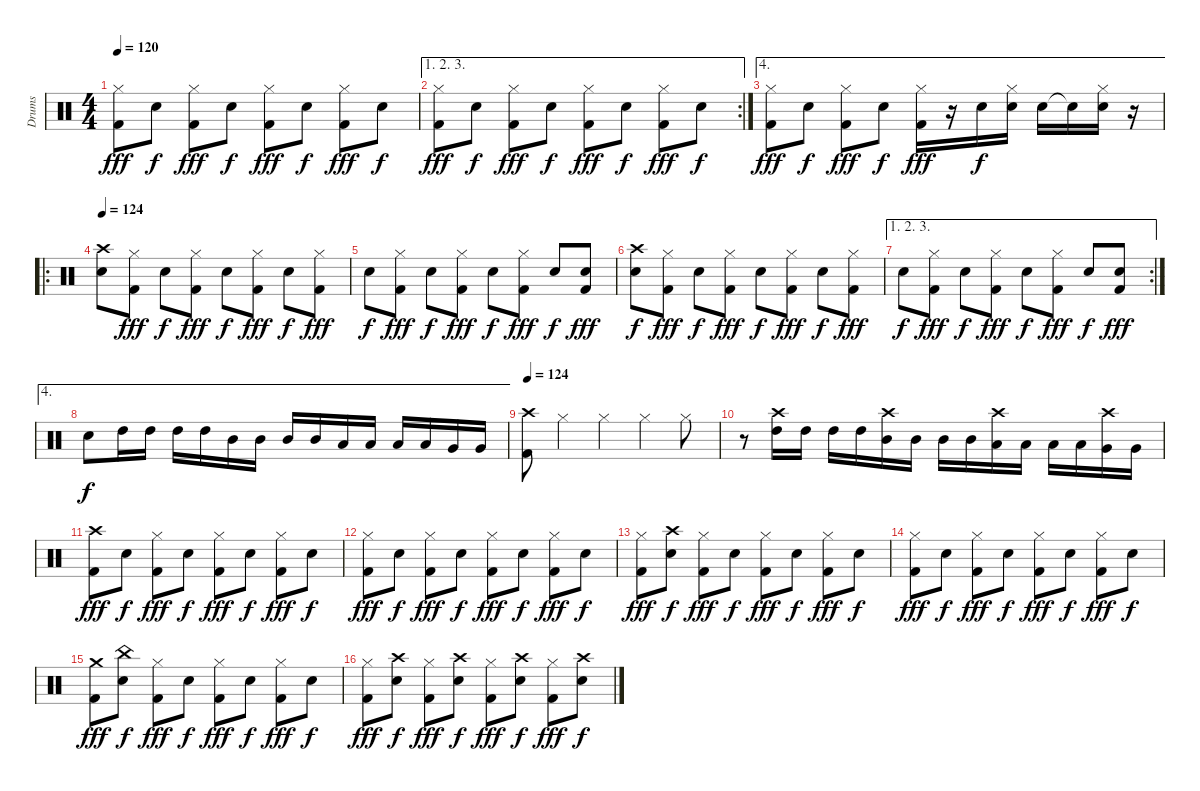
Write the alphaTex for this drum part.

\track ("Drums" "Drums") {instrument percussion}
\staff {score}
\articulation defaults
\ts (4 4)
\tempo 120
\clef neutral
\ks c
("Hi-Hat (closed)" "Kick (hit) 2").8{dy fff} "Snare (hit) 2".8{dy f} ("Hi-Hat (closed)" "Kick (hit) 2").8{dy fff} "Snare (hit) 2".8{dy f} ("Hi-Hat (closed)" "Kick (hit) 2").8{dy fff} "Snare (hit) 2".8{dy f} ("Hi-Hat (closed)" "Kick (hit) 2").8{dy fff} "Snare (hit) 2".8{dy f} |
\ae (1 2 3)
\rc 2
("Hi-Hat (closed)" "Kick (hit) 2").8{dy fff} "Snare (hit) 2".8{dy f} ("Hi-Hat (closed)" "Kick (hit) 2").8{dy fff} "Snare (hit) 2".8{dy f} ("Hi-Hat (closed)" "Kick (hit) 2").8{dy fff} "Snare (hit) 2".8{dy f} ("Hi-Hat (closed)" "Kick (hit) 2").8{dy fff} "Snare (hit) 2".8{dy f} |
\ae 4
("Hi-Hat (closed)" "Kick (hit) 2").8{dy fff} "Snare (hit) 2".8{dy f} ("Hi-Hat (closed)" "Kick (hit) 2").8{dy fff} "Snare (hit) 2".8{dy f} ("Hi-Hat (closed)" "Kick (hit) 2").16{dy fff} r.16 "Snare (hit) 2".16{dy f} ("Hi-Hat (closed)" "Snare (hit) 2").16 "Snare (hit) 2".16 "Snare (hit) 2"{t}.16 ("Hi-Hat (closed)" "Snare (hit) 2").16 r.16 |
\ro
\tempo 124
("Crash high (hit)" "Snare (hit) 2").8 ("Hi-Hat (closed)" "Kick (hit) 2").8{dy fff} "Snare (hit) 2".8{dy f} ("Hi-Hat (closed)" "Kick (hit) 2").8{dy fff} "Snare (hit) 2".8{dy f} ("Hi-Hat (closed)" "Kick (hit) 2").8{dy fff} "Snare (hit) 2".8{dy f} ("Hi-Hat (closed)" "Kick (hit) 2").8{dy fff} |
"Snare (hit) 2".8{dy f} ("Hi-Hat (closed)" "Kick (hit) 2").8{dy fff} "Snare (hit) 2".8{dy f} ("Hi-Hat (closed)" "Kick (hit) 2").8{dy fff} "Snare (hit) 2".8{dy f} ("Hi-Hat (closed)" "Kick (hit) 2").8{dy fff} "Snare (hit) 2".8{dy f} ("Snare (hit) 2" "Kick (hit) 2").8{dy fff} |
("Crash high (hit)" "Snare (hit) 2").8{dy f} ("Hi-Hat (closed)" "Kick (hit) 2").8{dy fff} "Snare (hit) 2".8{dy f} ("Hi-Hat (closed)" "Kick (hit) 2").8{dy fff} "Snare (hit) 2".8{dy f} ("Hi-Hat (closed)" "Kick (hit) 2").8{dy fff} "Snare (hit) 2".8{dy f} ("Hi-Hat (closed)" "Kick (hit) 2").8{dy fff} |
\ae (1 2 3)
\rc 2 "Snare (hit) 2".8{dy f}
("Hi-Hat (closed)" "Kick (hit) 2").8{dy fff} "Snare (hit) 2".8{dy f} ("Hi-Hat (closed)" "Kick (hit) 2").8{dy fff} "Snare (hit) 2".8{dy f} ("Hi-Hat (closed)" "Kick (hit) 2").8{dy fff} "Snare (hit) 2".8{dy f} ("Snare (hit) 2" "Kick (hit) 2").8{dy fff} |
\ae 4 "Snare (hit) 2".8{dy f} "High Tom (hit)".16 "High Tom (hit)".16 "High Tom (hit)".16 "High Tom (hit)".16 "Mid Tom (hit)".16 "Mid Tom (hit)".16 "Mid Tom (hit)".16 "Mid Tom (hit)".16 "Low Tom (hit)".16 "Low Tom (hit)".16 "Low Tom (hit)".16 "Low Tom (hit)".16 "Very Low Tom (hit)".16 "Very Low Tom (hit)".16
|
\tempo 124
("Crash high (hit)" "Kick (hit) 2").8 "Hi-Hat (closed)".4 "Hi-Hat (closed)".4 "Hi-Hat (closed)".4 "Hi-Hat (closed)".8 |
r.8 ("Crash high (hit)" "High Tom (hit)").16 "High Tom (hit)".16 "High Tom (hit)".16 "High Tom (hit)".16 ("Crash high (hit)" "Mid Tom (hit)").16 "Mid Tom (hit)".16 "Mid Tom (hit)".16 "Mid Tom (hit)".16 ("Crash high (hit)" "Low Tom (hit)").16 "Low Tom (hit)".16 "Low Tom (hit)".16 "Low Tom (hit)".16 ("Crash high (hit)" "Very Low Tom (hit)").16 "Very Low Tom (hit)".16 |
("Crash high (hit)" "Kick (hit) 2").8{dy fff} "Snare (hit) 2".8{dy f} ("Hi-Hat (closed)" "Kick (hit) 2").8{dy fff} "Snare (hit) 2".8{dy f} ("Hi-Hat (closed)" "Kick (hit) 2").8{dy fff} "Snare (hit) 2".8{dy f} ("Hi-Hat (closed)" "Kick (hit) 2").8{dy fff} "Snare (hit) 2".8{dy f} |
("Hi-Hat (closed)" "Kick (hit) 2").8{dy fff} "Snare (hit) 2".8{dy f} ("Hi-Hat (closed)" "Kick (hit) 2").8{dy fff} "Snare (hit) 2".8{dy f} ("Hi-Hat (closed)" "Kick (hit) 2").8{dy fff} "Snare (hit) 2".8{dy f} ("Hi-Hat (closed)" "Kick (hit) 2").8{dy fff} "Snare (hit) 2".8{dy f} |
("Hi-Hat (closed)" "Kick (hit) 2").8{dy fff} ("Crash high (hit)" "Snare (hit) 2").8{dy f} ("Hi-Hat (closed)" "Kick (hit) 2").8{dy fff} "Snare (hit) 2".8{dy f} ("Hi-Hat (closed)" "Kick (hit) 2").8{dy fff} "Snare (hit) 2".8{dy f} ("Hi-Hat (closed)" "Kick (hit) 2").8{dy fff} "Snare (hit) 2".8{dy f} |
("Hi-Hat (closed)" "Kick (hit) 2").8{dy fff} "Snare (hit) 2".8{dy f} ("Hi-Hat (closed)" "Kick (hit) 2").8{dy fff} "Snare (hit) 2".8{dy f} ("Hi-Hat (closed)" "Kick (hit) 2").8{dy fff} "Snare (hit) 2".8{dy f} ("Hi-Hat (closed)" "Kick (hit) 2").8{dy fff} "Snare (hit) 2".8{dy f} |
("Crash medium (hit)" "Kick (hit) 2").8{dy fff} ("China (hit)" "Snare (hit) 2").8{dy f} ("Hi-Hat (closed)" "Kick (hit) 2").8{dy fff} "Snare (hit) 2".8{dy f} ("Hi-Hat (closed)" "Kick (hit) 2").8{dy fff} "Snare (hit) 2".8{dy f} ("Hi-Hat (closed)" "Kick (hit) 2").8{dy fff} "Snare (hit) 2".8{dy f} |
("Hi-Hat (closed)" "Kick (hit) 2").8{dy fff} ("Crash high (hit)" "Snare (hit) 2").8{dy f} ("Hi-Hat (closed)" "Kick (hit) 2").8{dy fff} ("Crash high (hit)" "Snare (hit) 2").8{dy f} ("Hi-Hat (closed)" "Kick (hit) 2").8{dy fff} ("Crash high (hit)" "Snare (hit) 2").8{dy f} ("Hi-Hat (closed)" "Kick (hit) 2").8{dy fff} ("Crash high (hit)" "Snare (hit) 2").8{dy f}
